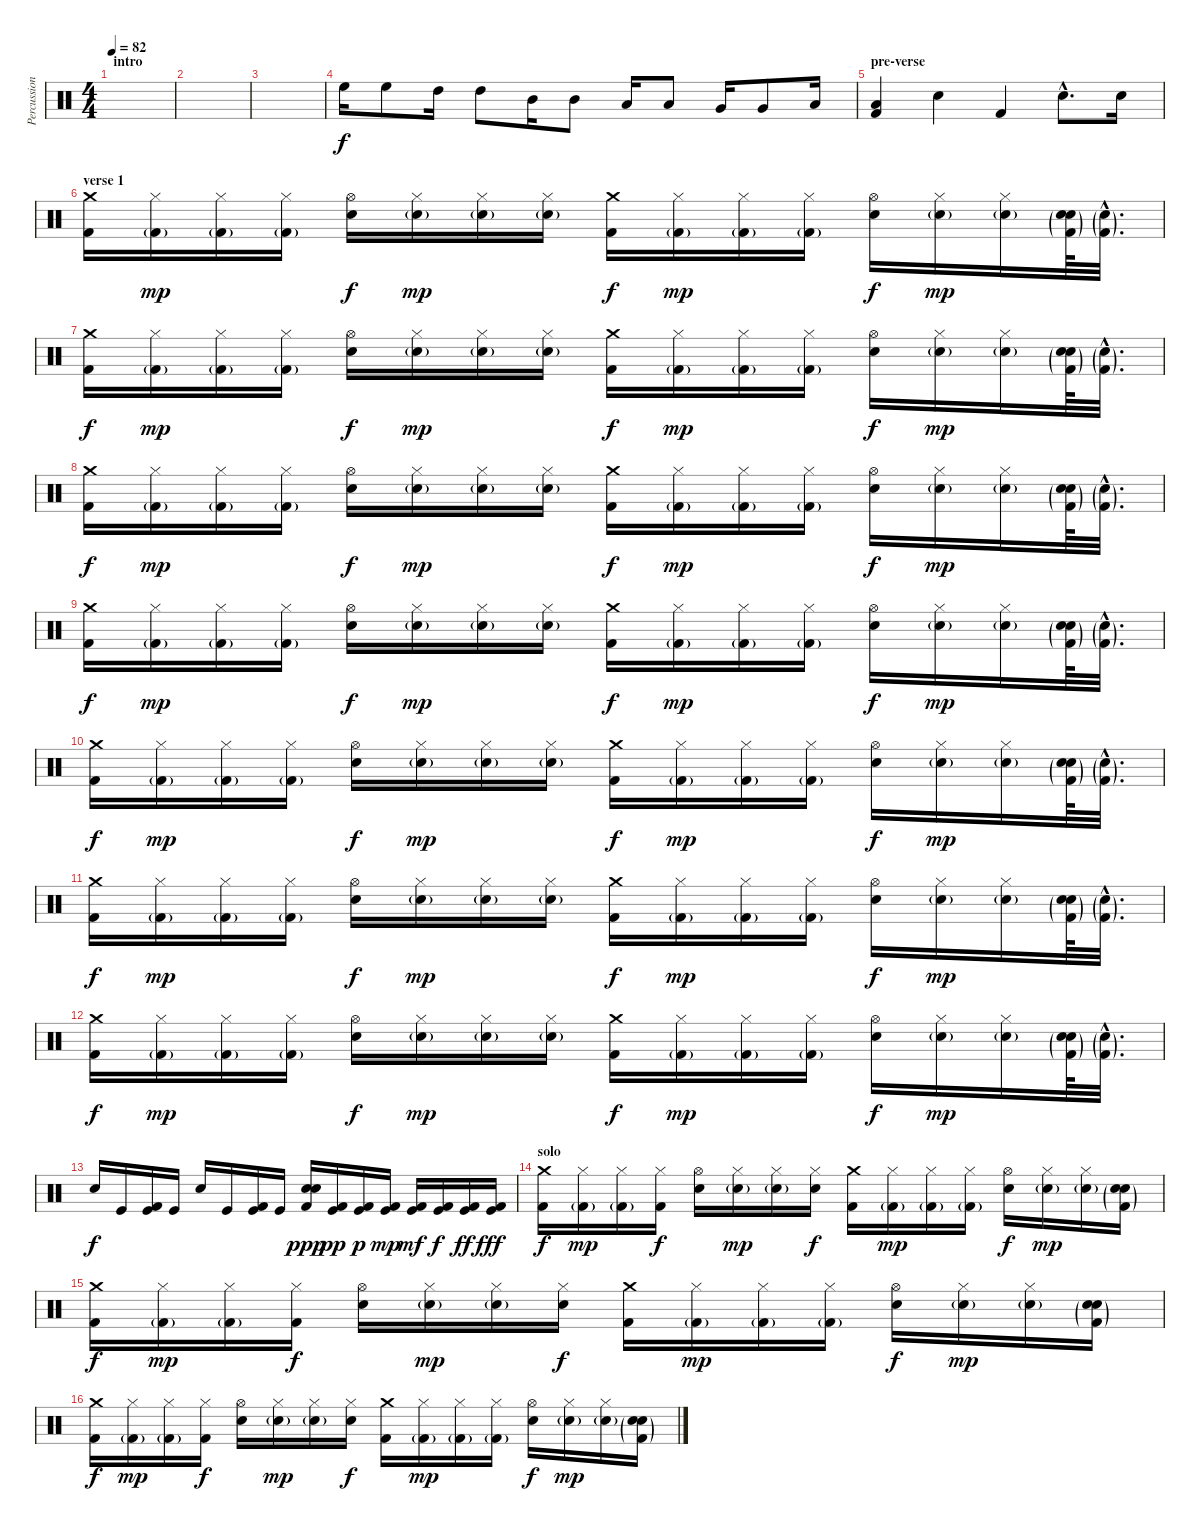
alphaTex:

\track ("Percussion" "Percussion") {instrument percussion}
\staff {score}
\articulation defaults
\ts (4 4)
\section ("" "intro")
\tempo 82
\clef neutral
\ks c
|
|
|
"High Floor Tom (hit)".16 "High Floor Tom (hit)".8 "High Tom (hit)".16 "High Tom (hit)".8 "Mid Tom (hit)".16 "Mid Tom (hit)".8 "Low Tom (hit)".16 "Low Tom (hit)".8 "Very Low Tom (hit)".16 "Very Low Tom (hit)".8 "Low Floor Tom (hit)".16 |
\section ("" "pre-verse")
("Low Floor Tom (hit)" "Kick (hit) 2").4 "Electric Snare (hit)".4 "Kick (hit) 2".4 "Electric Snare (hit)"{hac}.8{d} "Electric Snare (hit)".16 |
\section ("" "verse 1")
("Crash medium (hit)" "Kick (hit) 2").16 ("Kick (hit) 2"{g} "Hi-Hat (closed)").16{dy mp} ("Kick (hit) 2"{g} "Hi-Hat (closed)").16 ("Kick (hit) 2"{g} "Hi-Hat (closed)").16 ("Hi-Hat (open)" "Snare (hit) 2").16{dy f} ("Snare (hit) 2"{g} "Hi-Hat (closed)").16{dy mp} ("Snare (hit) 2"{g} "Hi-Hat (closed)").16 ("Snare (hit) 2"{g} "Hi-Hat (closed)").16 ("Crash medium (hit)" "Kick (hit) 2").16{dy f} ("Kick (hit) 2"{g} "Hi-Hat (closed)").16{dy mp} ("Kick (hit) 2"{g} "Hi-Hat (closed)").16 ("Kick (hit) 2"{g} "Hi-Hat (closed)").16 ("Hi-Hat (open)" "Snare (hit) 2").16{dy f} ("Snare (hit) 2"{g} "Hi-Hat (closed)").16{dy mp} ("Snare (hit) 2"{g} "Hi-Hat (closed)").16 ("Snare (hit) 2" "Kick (hit) 2"{g} "Electric Snare (hit)"{g}).64 ("Electric Snare (hit)"{g hac} "Kick (hit) 2"{g hac}).32{d} |
("Crash medium (hit)" "Kick (hit) 2").16{dy f} ("Kick (hit) 2"{g} "Hi-Hat (closed)").16{dy mp} ("Kick (hit) 2"{g} "Hi-Hat (closed)").16 ("Kick (hit) 2"{g} "Hi-Hat (closed)").16 ("Hi-Hat (open)" "Snare (hit) 2").16{dy f} ("Snare (hit) 2"{g} "Hi-Hat (closed)").16{dy mp} ("Snare (hit) 2"{g} "Hi-Hat (closed)").16 ("Snare (hit) 2"{g} "Hi-Hat (closed)").16 ("Crash medium (hit)" "Kick (hit) 2").16{dy f} ("Kick (hit) 2"{g} "Hi-Hat (closed)").16{dy mp} ("Kick (hit) 2"{g} "Hi-Hat (closed)").16 ("Kick (hit) 2"{g} "Hi-Hat (closed)").16 ("Hi-Hat (open)" "Snare (hit) 2").16{dy f} ("Snare (hit) 2"{g} "Hi-Hat (closed)").16{dy mp} ("Snare (hit) 2"{g} "Hi-Hat (closed)").16 ("Snare (hit) 2" "Kick (hit) 2"{g} "Electric Snare (hit)"{g}).64 ("Electric Snare (hit)"{g hac} "Kick (hit) 2"{g hac}).32{d} |
("Crash medium (hit)" "Kick (hit) 2").16{dy f} ("Kick (hit) 2"{g} "Hi-Hat (closed)").16{dy mp} ("Kick (hit) 2"{g} "Hi-Hat (closed)").16 ("Kick (hit) 2"{g} "Hi-Hat (closed)").16 ("Hi-Hat (open)" "Snare (hit) 2").16{dy f} ("Snare (hit) 2"{g} "Hi-Hat (closed)").16{dy mp} ("Snare (hit) 2"{g} "Hi-Hat (closed)").16 ("Snare (hit) 2"{g} "Hi-Hat (closed)").16 ("Crash medium (hit)" "Kick (hit) 2").16{dy f} ("Kick (hit) 2"{g} "Hi-Hat (closed)").16{dy mp} ("Kick (hit) 2"{g} "Hi-Hat (closed)").16 ("Kick (hit) 2"{g} "Hi-Hat (closed)").16 ("Hi-Hat (open)" "Snare (hit) 2").16{dy f} ("Snare (hit) 2"{g} "Hi-Hat (closed)").16{dy mp} ("Snare (hit) 2"{g} "Hi-Hat (closed)").16 ("Snare (hit) 2" "Kick (hit) 2"{g} "Electric Snare (hit)"{g}).64 ("Electric Snare (hit)"{g hac} "Kick (hit) 2"{g hac}).32{d} |
("Crash medium (hit)" "Kick (hit) 2").16{dy f} ("Kick (hit) 2"{g} "Hi-Hat (closed)").16{dy mp} ("Kick (hit) 2"{g} "Hi-Hat (closed)").16 ("Kick (hit) 2"{g} "Hi-Hat (closed)").16 ("Hi-Hat (open)" "Snare (hit) 2").16{dy f} ("Snare (hit) 2"{g} "Hi-Hat (closed)").16{dy mp} ("Snare (hit) 2"{g} "Hi-Hat (closed)").16 ("Snare (hit) 2"{g} "Hi-Hat (closed)").16 ("Crash medium (hit)" "Kick (hit) 2").16{dy f} ("Kick (hit) 2"{g} "Hi-Hat (closed)").16{dy mp} ("Kick (hit) 2"{g} "Hi-Hat (closed)").16 ("Kick (hit) 2"{g} "Hi-Hat (closed)").16 ("Hi-Hat (open)" "Snare (hit) 2").16{dy f} ("Snare (hit) 2"{g} "Hi-Hat (closed)").16{dy mp} ("Snare (hit) 2"{g} "Hi-Hat (closed)").16 ("Snare (hit) 2" "Kick (hit) 2"{g} "Electric Snare (hit)"{g}).64 ("Electric Snare (hit)"{g hac} "Kick (hit) 2"{g hac}).32{d} |
("Crash medium (hit)" "Kick (hit) 2").16{dy f} ("Kick (hit) 2"{g} "Hi-Hat (closed)").16{dy mp} ("Kick (hit) 2"{g} "Hi-Hat (closed)").16 ("Kick (hit) 2"{g} "Hi-Hat (closed)").16 ("Hi-Hat (open)" "Snare (hit) 2").16{dy f} ("Snare (hit) 2"{g} "Hi-Hat (closed)").16{dy mp} ("Snare (hit) 2"{g} "Hi-Hat (closed)").16 ("Snare (hit) 2"{g} "Hi-Hat (closed)").16 ("Crash medium (hit)" "Kick (hit) 2").16{dy f} ("Kick (hit) 2"{g} "Hi-Hat (closed)").16{dy mp} ("Kick (hit) 2"{g} "Hi-Hat (closed)").16 ("Kick (hit) 2"{g} "Hi-Hat (closed)").16 ("Hi-Hat (open)" "Snare (hit) 2").16{dy f} ("Snare (hit) 2"{g} "Hi-Hat (closed)").16{dy mp} ("Snare (hit) 2"{g} "Hi-Hat (closed)").16 ("Snare (hit) 2" "Kick (hit) 2"{g} "Electric Snare (hit)"{g}).64 ("Electric Snare (hit)"{g hac} "Kick (hit) 2"{g hac}).32{d} |
("Crash medium (hit)" "Kick (hit) 2").16{dy f} ("Kick (hit) 2"{g} "Hi-Hat (closed)").16{dy mp} ("Kick (hit) 2"{g} "Hi-Hat (closed)").16 ("Kick (hit) 2"{g} "Hi-Hat (closed)").16 ("Hi-Hat (open)" "Snare (hit) 2").16{dy f} ("Snare (hit) 2"{g} "Hi-Hat (closed)").16{dy mp} ("Snare (hit) 2"{g} "Hi-Hat (closed)").16 ("Snare (hit) 2"{g} "Hi-Hat (closed)").16 ("Crash medium (hit)" "Kick (hit) 2").16{dy f} ("Kick (hit) 2"{g} "Hi-Hat (closed)").16{dy mp} ("Kick (hit) 2"{g} "Hi-Hat (closed)").16 ("Kick (hit) 2"{g} "Hi-Hat (closed)").16 ("Hi-Hat (open)" "Snare (hit) 2").16{dy f} ("Snare (hit) 2"{g} "Hi-Hat (closed)").16{dy mp} ("Snare (hit) 2"{g} "Hi-Hat (closed)").16 ("Snare (hit) 2" "Kick (hit) 2"{g} "Electric Snare (hit)"{g}).64 ("Electric Snare (hit)"{g hac} "Kick (hit) 2"{g hac}).32{d} |
("Crash medium (hit)" "Kick (hit) 2").16{dy f} ("Kick (hit) 2"{g} "Hi-Hat (closed)").16{dy mp} ("Kick (hit) 2"{g} "Hi-Hat (closed)").16 ("Kick (hit) 2"{g} "Hi-Hat (closed)").16 ("Hi-Hat (open)" "Snare (hit) 2").16{dy f} ("Snare (hit) 2"{g} "Hi-Hat (closed)").16{dy mp} ("Snare (hit) 2"{g} "Hi-Hat (closed)").16 ("Snare (hit) 2"{g} "Hi-Hat (closed)").16 ("Crash medium (hit)" "Kick (hit) 2").16{dy f} ("Kick (hit) 2"{g} "Hi-Hat (closed)").16{dy mp} ("Kick (hit) 2"{g} "Hi-Hat (closed)").16 ("Kick (hit) 2"{g} "Hi-Hat (closed)").16 ("Hi-Hat (open)" "Snare (hit) 2").16{dy f} ("Snare (hit) 2"{g} "Hi-Hat (closed)").16{dy mp} ("Snare (hit) 2"{g} "Hi-Hat (closed)").16 ("Snare (hit) 2" "Kick (hit) 2"{g} "Electric Snare (hit)"{g}).64 ("Electric Snare (hit)"{g hac} "Kick (hit) 2"{g hac}).32{d} |
"Electric Snare (hit)".16{dy f} "Kick (hit)".16 ("Kick (hit)" "Kick (hit) 2").16 "Kick (hit)".16 "Electric Snare (hit)".16 "Kick (hit)".16 ("Kick (hit)" "Kick (hit) 2").16 "Kick (hit)".16 ("Snare (hit) 2" "Electric Snare (hit)" "Kick (hit) 2").16{dy ppp} ("Kick (hit) 2" "Kick (hit)").16{dy pp} ("Kick (hit) 2" "Kick (hit)").16{dy p} ("Kick (hit) 2" "Kick (hit)").16{dy mp} ("Kick (hit) 2" "Kick (hit)").16{dy mf} ("Kick (hit) 2" "Kick (hit)").16{dy f} ("Kick (hit) 2" "Kick (hit)").16{dy ff} ("Kick (hit) 2" "Kick (hit)").16{dy fff} |
\section ("" "solo")
("Crash medium (hit)" "Kick (hit) 2").16{dy f} ("Kick (hit) 2"{g} "Hi-Hat (closed)").16{dy mp} ("Kick (hit) 2"{g} "Hi-Hat (closed)").16 ("Kick (hit) 2" "Hi-Hat (closed)").16{dy f} ("Hi-Hat (open)" "Snare (hit) 2").16 ("Snare (hit) 2"{g} "Hi-Hat (closed)").16{dy mp} ("Snare (hit) 2"{g} "Hi-Hat (closed)").16 ("Snare (hit) 2" "Hi-Hat (closed)").16{dy f} ("Crash medium (hit)" "Kick (hit) 2").16 ("Kick (hit) 2"{g} "Hi-Hat (closed)").16{dy mp} ("Kick (hit) 2"{g} "Hi-Hat (closed)").16 ("Kick (hit) 2"{g} "Hi-Hat (closed)").16 ("Hi-Hat (open)" "Snare (hit) 2").16{dy f} ("Snare (hit) 2"{g} "Hi-Hat (closed)").16{dy mp} ("Snare (hit) 2"{g} "Hi-Hat (closed)").16 ("Snare (hit) 2" "Kick (hit) 2"{g} "Electric Snare (hit)"{g}).16 |
("Crash medium (hit)" "Kick (hit) 2").16{dy f} ("Kick (hit) 2"{g} "Hi-Hat (closed)").16{dy mp} ("Kick (hit) 2"{g} "Hi-Hat (closed)").16 ("Kick (hit) 2" "Hi-Hat (closed)").16{dy f} ("Hi-Hat (open)" "Snare (hit) 2").16 ("Snare (hit) 2"{g} "Hi-Hat (closed)").16{dy mp} ("Snare (hit) 2"{g} "Hi-Hat (closed)").16 ("Snare (hit) 2" "Hi-Hat (closed)").16{dy f} ("Crash medium (hit)" "Kick (hit) 2").16 ("Kick (hit) 2"{g} "Hi-Hat (closed)").16{dy mp} ("Kick (hit) 2"{g} "Hi-Hat (closed)").16 ("Kick (hit) 2"{g} "Hi-Hat (closed)").16 ("Hi-Hat (open)" "Snare (hit) 2").16{dy f} ("Snare (hit) 2"{g} "Hi-Hat (closed)").16{dy mp} ("Snare (hit) 2"{g} "Hi-Hat (closed)").16 ("Snare (hit) 2" "Kick (hit) 2"{g} "Electric Snare (hit)"{g}).16 |
("Crash medium (hit)" "Kick (hit) 2").16{dy f} ("Kick (hit) 2"{g} "Hi-Hat (closed)").16{dy mp} ("Kick (hit) 2"{g} "Hi-Hat (closed)").16 ("Kick (hit) 2" "Hi-Hat (closed)").16{dy f} ("Hi-Hat (open)" "Snare (hit) 2").16 ("Snare (hit) 2"{g} "Hi-Hat (closed)").16{dy mp} ("Snare (hit) 2"{g} "Hi-Hat (closed)").16 ("Snare (hit) 2" "Hi-Hat (closed)").16{dy f} ("Crash medium (hit)" "Kick (hit) 2").16 ("Kick (hit) 2"{g} "Hi-Hat (closed)").16{dy mp} ("Kick (hit) 2"{g} "Hi-Hat (closed)").16 ("Kick (hit) 2"{g} "Hi-Hat (closed)").16 ("Hi-Hat (open)" "Snare (hit) 2").16{dy f} ("Snare (hit) 2"{g} "Hi-Hat (closed)").16{dy mp} ("Snare (hit) 2"{g} "Hi-Hat (closed)").16 ("Snare (hit) 2" "Kick (hit) 2"{g} "Electric Snare (hit)"{g}).16
